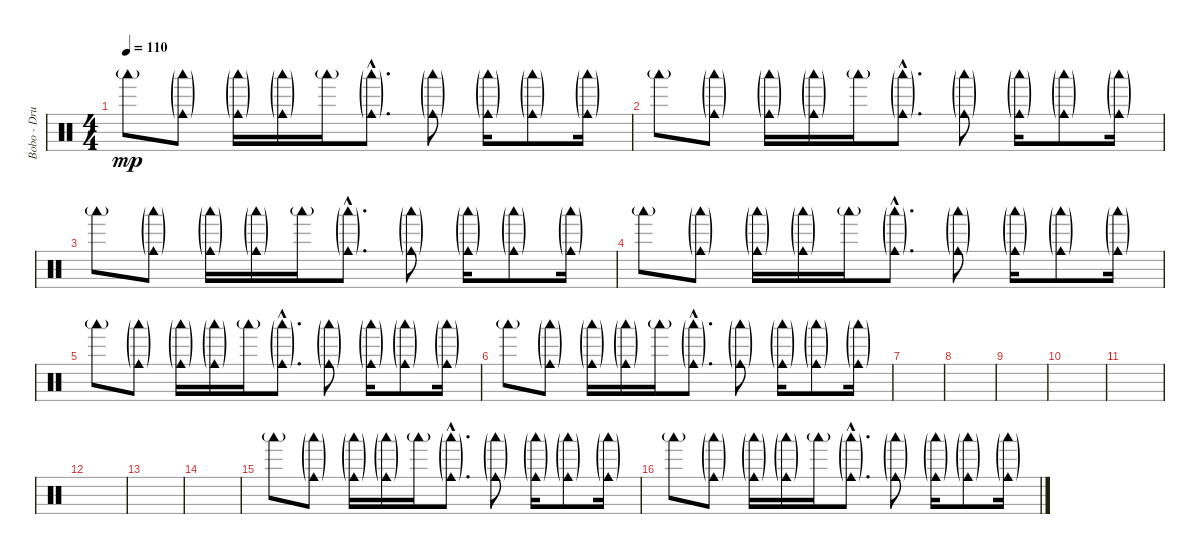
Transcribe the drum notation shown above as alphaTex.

\track ("Bobo - Drums" "Bobo - Dru") {instrument percussion}
\staff {score}
\articulation defaults
\ts (4 4)
\tempo 110
\clef neutral
\ks c "Woodblock low (hit)"{g}.8{dy mp}
("Woodblock low (hit)"{g} "Cowbell medium (hit)"{g}).8 ("Woodblock low (hit)"{g} "Cowbell medium (hit)"{g}).16 ("Woodblock low (hit)"{g} "Cowbell medium (hit)"{g}).16 "Woodblock low (hit)"{g}.16 ("Woodblock low (hit)"{g hac} "Cowbell medium (hit)"{g hac}).8{d} ("Woodblock low (hit)"{g} "Cowbell medium (hit)"{g}).8 ("Woodblock low (hit)"{g} "Cowbell medium (hit)"{g}).16 ("Woodblock low (hit)"{g} "Cowbell medium (hit)"{g}).8 ("Woodblock low (hit)"{g} "Cowbell medium (hit)"{g}).16 |
"Woodblock low (hit)"{g}.8 ("Woodblock low (hit)"{g} "Cowbell medium (hit)"{g}).8 ("Woodblock low (hit)"{g} "Cowbell medium (hit)"{g}).16 ("Woodblock low (hit)"{g} "Cowbell medium (hit)"{g}).16 "Woodblock low (hit)"{g}.16 ("Woodblock low (hit)"{g hac} "Cowbell medium (hit)"{g hac}).8{d} ("Woodblock low (hit)"{g} "Cowbell medium (hit)"{g}).8 ("Woodblock low (hit)"{g} "Cowbell medium (hit)"{g}).16 ("Woodblock low (hit)"{g} "Cowbell medium (hit)"{g}).8 ("Woodblock low (hit)"{g} "Cowbell medium (hit)"{g}).16 |
"Woodblock low (hit)"{g}.8 ("Woodblock low (hit)"{g} "Cowbell medium (hit)"{g}).8 ("Woodblock low (hit)"{g} "Cowbell medium (hit)"{g}).16 ("Woodblock low (hit)"{g} "Cowbell medium (hit)"{g}).16 "Woodblock low (hit)"{g}.16 ("Woodblock low (hit)"{g hac} "Cowbell medium (hit)"{g hac}).8{d} ("Woodblock low (hit)"{g} "Cowbell medium (hit)"{g}).8 ("Woodblock low (hit)"{g} "Cowbell medium (hit)"{g}).16 ("Woodblock low (hit)"{g} "Cowbell medium (hit)"{g}).8 ("Woodblock low (hit)"{g} "Cowbell medium (hit)"{g}).16 |
"Woodblock low (hit)"{g}.8 ("Woodblock low (hit)"{g} "Cowbell medium (hit)"{g}).8 ("Woodblock low (hit)"{g} "Cowbell medium (hit)"{g}).16 ("Woodblock low (hit)"{g} "Cowbell medium (hit)"{g}).16 "Woodblock low (hit)"{g}.16 ("Woodblock low (hit)"{g hac} "Cowbell medium (hit)"{g hac}).8{d} ("Woodblock low (hit)"{g} "Cowbell medium (hit)"{g}).8 ("Woodblock low (hit)"{g} "Cowbell medium (hit)"{g}).16 ("Woodblock low (hit)"{g} "Cowbell medium (hit)"{g}).8 ("Woodblock low (hit)"{g} "Cowbell medium (hit)"{g}).16 |
"Woodblock low (hit)"{g}.8 ("Woodblock low (hit)"{g} "Cowbell medium (hit)"{g}).8 ("Woodblock low (hit)"{g} "Cowbell medium (hit)"{g}).16 ("Woodblock low (hit)"{g} "Cowbell medium (hit)"{g}).16 "Woodblock low (hit)"{g}.16 ("Woodblock low (hit)"{g hac} "Cowbell medium (hit)"{g hac}).8{d} ("Woodblock low (hit)"{g} "Cowbell medium (hit)"{g}).8 ("Woodblock low (hit)"{g} "Cowbell medium (hit)"{g}).16 ("Woodblock low (hit)"{g} "Cowbell medium (hit)"{g}).8 ("Woodblock low (hit)"{g} "Cowbell medium (hit)"{g}).16 |
"Woodblock low (hit)"{g}.8 ("Woodblock low (hit)"{g} "Cowbell medium (hit)"{g}).8 ("Woodblock low (hit)"{g} "Cowbell medium (hit)"{g}).16 ("Woodblock low (hit)"{g} "Cowbell medium (hit)"{g}).16 "Woodblock low (hit)"{g}.16 ("Woodblock low (hit)"{g hac} "Cowbell medium (hit)"{g hac}).8{d} ("Woodblock low (hit)"{g} "Cowbell medium (hit)"{g}).8 ("Woodblock low (hit)"{g} "Cowbell medium (hit)"{g}).16 ("Woodblock low (hit)"{g} "Cowbell medium (hit)"{g}).8 ("Woodblock low (hit)"{g} "Cowbell medium (hit)"{g}).16 |
|
|
|
|
|
|
|
|
"Woodblock low (hit)"{g}.8 ("Woodblock low (hit)"{g} "Cowbell medium (hit)"{g}).8 ("Woodblock low (hit)"{g} "Cowbell medium (hit)"{g}).16 ("Woodblock low (hit)"{g} "Cowbell medium (hit)"{g}).16 "Woodblock low (hit)"{g}.16 ("Woodblock low (hit)"{g hac} "Cowbell medium (hit)"{g hac}).8{d} ("Woodblock low (hit)"{g} "Cowbell medium (hit)"{g}).8 ("Woodblock low (hit)"{g} "Cowbell medium (hit)"{g}).16 ("Woodblock low (hit)"{g} "Cowbell medium (hit)"{g}).8 ("Woodblock low (hit)"{g} "Cowbell medium (hit)"{g}).16 |
"Woodblock low (hit)"{g}.8 ("Woodblock low (hit)"{g} "Cowbell medium (hit)"{g}).8 ("Woodblock low (hit)"{g} "Cowbell medium (hit)"{g}).16 ("Woodblock low (hit)"{g} "Cowbell medium (hit)"{g}).16 "Woodblock low (hit)"{g}.16 ("Woodblock low (hit)"{g hac} "Cowbell medium (hit)"{g hac}).8{d} ("Woodblock low (hit)"{g} "Cowbell medium (hit)"{g}).8 ("Woodblock low (hit)"{g} "Cowbell medium (hit)"{g}).16 ("Woodblock low (hit)"{g} "Cowbell medium (hit)"{g}).8 ("Woodblock low (hit)"{g} "Cowbell medium (hit)"{g}).16
